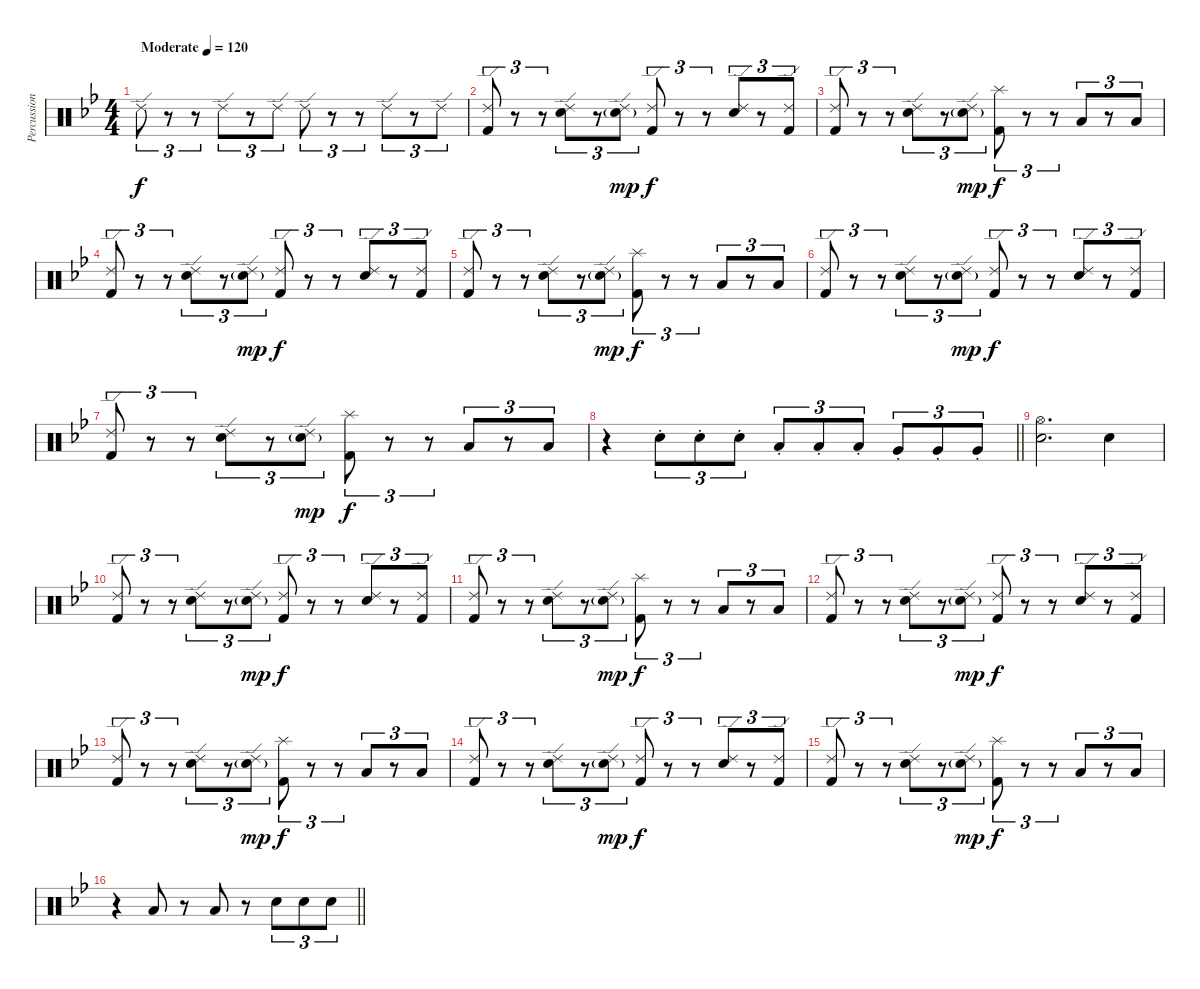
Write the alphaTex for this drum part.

\track ("Percussion" "Percussion") {instrument percussion}
\staff {score}
\articulation defaults
\ts (4 4)
\tempo (120 "Moderate")
\clef neutral
\ks bb "Ride (edge) 2".8{tu (3 2) dy f}
r.8{tu (3 2)} r.8{tu (3 2)} "Ride (edge) 2".8{tu (3 2)} r.8{tu (3 2)} "Ride (edge) 2".8{tu (3 2)} "Ride (edge) 2".8{tu (3 2)} r.8{tu (3 2)} r.8{tu (3 2)} "Ride (edge) 2".8{tu (3 2)} r.8{tu (3 2)} "Ride (edge) 2".8{tu (3 2)} |
("Ride (edge) 2" "Kick (hit) 2").8{tu (3 2)} r.8{tu (3 2)} r.8{tu (3 2)} ("Ride (edge) 2" "Electric Snare (hit)").8{tu (3 2)} r.8{tu (3 2)} ("Ride (edge) 2" "Electric Snare (hit)"{g}).8{tu (3 2) dy mp} ("Ride (edge) 2" "Kick (hit) 2").8{tu (3 2) dy f} r.8{tu (3 2)} r.8{tu (3 2)} ("Ride (edge) 2" "Electric Snare (hit)").8{tu (3 2)} r.8{tu (3 2)} ("Ride (edge) 2" "Kick (hit) 2").8{tu (3 2)} |
("Ride (edge) 2" "Kick (hit) 2").8{tu (3 2)} r.8{tu (3 2)} r.8{tu (3 2)} ("Ride (edge) 2" "Electric Snare (hit)").8{tu (3 2)} r.8{tu (3 2)} ("Ride (edge) 2" "Electric Snare (hit)"{g}).8{tu (3 2) dy mp} ("Splash (hit)" "Kick (hit) 2").8{tu (3 2) dy f} r.8{tu (3 2)} r.8{tu (3 2)} "Low Tom (hit)".8{tu (3 2)} r.8{tu (3 2)} "Low Tom (hit)".8{tu (3 2)} |
("Ride (edge) 2" "Kick (hit) 2").8{tu (3 2)} r.8{tu (3 2)} r.8{tu (3 2)} ("Ride (edge) 2" "Electric Snare (hit)").8{tu (3 2)} r.8{tu (3 2)} ("Ride (edge) 2" "Electric Snare (hit)"{g}).8{tu (3 2) dy mp} ("Ride (edge) 2" "Kick (hit) 2").8{tu (3 2) dy f} r.8{tu (3 2)} r.8{tu (3 2)} ("Ride (edge) 2" "Electric Snare (hit)").8{tu (3 2)} r.8{tu (3 2)} ("Ride (edge) 2" "Kick (hit) 2").8{tu (3 2)} |
("Ride (edge) 2" "Kick (hit) 2").8{tu (3 2)} r.8{tu (3 2)} r.8{tu (3 2)} ("Ride (edge) 2" "Electric Snare (hit)").8{tu (3 2)} r.8{tu (3 2)} ("Ride (edge) 2" "Electric Snare (hit)"{g}).8{tu (3 2) dy mp} ("Splash (hit)" "Kick (hit) 2").8{tu (3 2) dy f} r.8{tu (3 2)} r.8{tu (3 2)} "Low Tom (hit)".8{tu (3 2)} r.8{tu (3 2)} "Low Tom (hit)".8{tu (3 2)} |
("Ride (edge) 2" "Kick (hit) 2").8{tu (3 2)} r.8{tu (3 2)} r.8{tu (3 2)} ("Ride (edge) 2" "Electric Snare (hit)").8{tu (3 2)} r.8{tu (3 2)} ("Ride (edge) 2" "Electric Snare (hit)"{g}).8{tu (3 2) dy mp} ("Ride (edge) 2" "Kick (hit) 2").8{tu (3 2) dy f} r.8{tu (3 2)} r.8{tu (3 2)} ("Ride (edge) 2" "Electric Snare (hit)").8{tu (3 2)} r.8{tu (3 2)} ("Ride (edge) 2" "Kick (hit) 2").8{tu (3 2)} |
("Ride (edge) 2" "Kick (hit) 2").8{tu (3 2)} r.8{tu (3 2)} r.8{tu (3 2)} ("Ride (edge) 2" "Electric Snare (hit)").8{tu (3 2)} r.8{tu (3 2)} ("Ride (edge) 2" "Electric Snare (hit)"{g}).8{tu (3 2) dy mp} ("Splash (hit)" "Kick (hit) 2").8{tu (3 2) dy f} r.8{tu (3 2)} r.8{tu (3 2)} "Low Tom (hit)".8{tu (3 2)} r.8{tu (3 2)} "Low Tom (hit)".8{tu (3 2)} |
\barLineRight lightlight
r.4 "Electric Snare (hit)"{st}.8{tu (3 2)} "Electric Snare (hit)"{st}.8{tu (3 2)} "Electric Snare (hit)"{st}.8{tu (3 2)} "Low Tom (hit)"{st}.8{tu (3 2)} "Low Tom (hit)"{st}.8{tu (3 2)} "Low Tom (hit)"{st}.8{tu (3 2)} "Very Low Tom (hit)"{st}.8{tu (3 2)} "Very Low Tom (hit)"{st}.8{tu (3 2)} "Very Low Tom (hit)"{st}.8{tu (3 2)} |
("Hi-Hat (open)" "Electric Snare (hit)").2{d} "Electric Snare (hit)".4 |
("Ride (edge) 2" "Kick (hit) 2").8{tu (3 2)} r.8{tu (3 2)} r.8{tu (3 2)} ("Ride (edge) 2" "Electric Snare (hit)").8{tu (3 2)} r.8{tu (3 2)} ("Ride (edge) 2" "Electric Snare (hit)"{g}).8{tu (3 2) dy mp} ("Ride (edge) 2" "Kick (hit) 2").8{tu (3 2) dy f} r.8{tu (3 2)} r.8{tu (3 2)} ("Ride (edge) 2" "Electric Snare (hit)").8{tu (3 2)} r.8{tu (3 2)} ("Ride (edge) 2" "Kick (hit) 2").8{tu (3 2)} |
("Ride (edge) 2" "Kick (hit) 2").8{tu (3 2)} r.8{tu (3 2)} r.8{tu (3 2)} ("Ride (edge) 2" "Electric Snare (hit)").8{tu (3 2)} r.8{tu (3 2)} ("Ride (edge) 2" "Electric Snare (hit)"{g}).8{tu (3 2) dy mp} ("Splash (hit)" "Kick (hit) 2").8{tu (3 2) dy f} r.8{tu (3 2)} r.8{tu (3 2)} "Low Tom (hit)".8{tu (3 2)} r.8{tu (3 2)} "Low Tom (hit)".8{tu (3 2)} |
("Ride (edge) 2" "Kick (hit) 2").8{tu (3 2)} r.8{tu (3 2)} r.8{tu (3 2)} ("Ride (edge) 2" "Electric Snare (hit)").8{tu (3 2)} r.8{tu (3 2)} ("Ride (edge) 2" "Electric Snare (hit)"{g}).8{tu (3 2) dy mp} ("Ride (edge) 2" "Kick (hit) 2").8{tu (3 2) dy f} r.8{tu (3 2)} r.8{tu (3 2)} ("Ride (edge) 2" "Electric Snare (hit)").8{tu (3 2)} r.8{tu (3 2)} ("Ride (edge) 2" "Kick (hit) 2").8{tu (3 2)} |
("Ride (edge) 2" "Kick (hit) 2").8{tu (3 2)} r.8{tu (3 2)} r.8{tu (3 2)} ("Ride (edge) 2" "Electric Snare (hit)").8{tu (3 2)} r.8{tu (3 2)} ("Ride (edge) 2" "Electric Snare (hit)"{g}).8{tu (3 2) dy mp} ("Splash (hit)" "Kick (hit) 2").8{tu (3 2) dy f} r.8{tu (3 2)} r.8{tu (3 2)} "Low Tom (hit)".8{tu (3 2)} r.8{tu (3 2)} "Low Tom (hit)".8{tu (3 2)} |
("Ride (edge) 2" "Kick (hit) 2").8{tu (3 2)} r.8{tu (3 2)} r.8{tu (3 2)} ("Ride (edge) 2" "Electric Snare (hit)").8{tu (3 2)} r.8{tu (3 2)} ("Ride (edge) 2" "Electric Snare (hit)"{g}).8{tu (3 2) dy mp} ("Ride (edge) 2" "Kick (hit) 2").8{tu (3 2) dy f} r.8{tu (3 2)} r.8{tu (3 2)} ("Ride (edge) 2" "Electric Snare (hit)").8{tu (3 2)} r.8{tu (3 2)} ("Ride (edge) 2" "Kick (hit) 2").8{tu (3 2)} |
("Ride (edge) 2" "Kick (hit) 2").8{tu (3 2)} r.8{tu (3 2)} r.8{tu (3 2)} ("Ride (edge) 2" "Electric Snare (hit)").8{tu (3 2)} r.8{tu (3 2)} ("Ride (edge) 2" "Electric Snare (hit)"{g}).8{tu (3 2) dy mp} ("Splash (hit)" "Kick (hit) 2").8{tu (3 2) dy f} r.8{tu (3 2)} r.8{tu (3 2)} "Low Tom (hit)".8{tu (3 2)} r.8{tu (3 2)} "Low Tom (hit)".8{tu (3 2)} |
\barLineRight lightlight
r.4 "Low Tom (hit)".8 r.8 "Low Tom (hit)".8 r.8 "Electric Snare (hit)".8{tu (3 2)} "Electric Snare (hit)".8{tu (3 2)} "Electric Snare (hit)".8{tu (3 2)}
